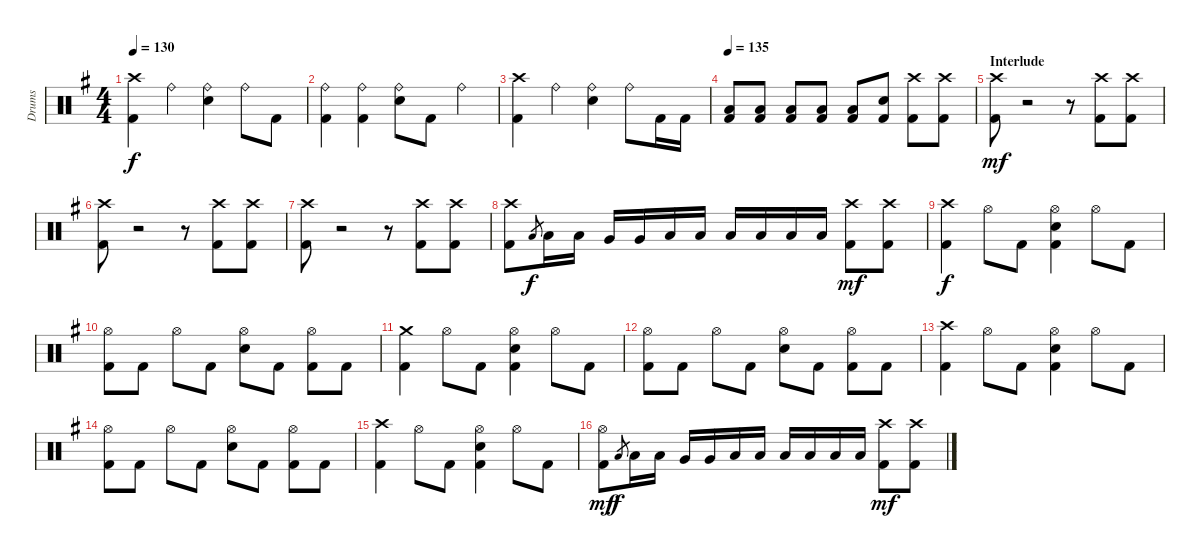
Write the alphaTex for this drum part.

\track ("Drums" "Drums") {instrument percussion}
\staff {score}
\articulation defaults
\ts (4 4)
\tempo 130
\clef neutral
\ks eminor
("Crash high (hit)" "Kick (hit) 2").4{dy f} "Ride (bell)".4 ("Ride (bell)" "Snare (hit) 2").4 "Ride (bell)".8 "Kick (hit) 2".8 |
("Ride (bell)" "Kick (hit) 2").4 ("Ride (bell)" "Kick (hit) 2").4 ("Ride (bell)" "Snare (hit) 2").8 "Kick (hit) 2".8 "Ride (bell)".4 |
("Crash high (hit)" "Kick (hit) 2").4 "Ride (bell)".4 ("Ride (bell)" "Snare (hit) 2").4 "Ride (bell)".8 "Kick (hit) 2".16 "Kick (hit) 2".16 |
\tempo 135
("Low Floor Tom (hit)" "Kick (hit) 2").8 ("Low Floor Tom (hit)" "Kick (hit) 2").8 ("Low Floor Tom (hit)" "Kick (hit) 2").8 ("Low Floor Tom (hit)" "Kick (hit) 2").8 ("Low Floor Tom (hit)" "Kick (hit) 2").8 ("Snare (hit) 2" "Kick (hit) 2").8 ("Crash high (hit)" "Kick (hit) 2").8 ("Crash high (hit)" "Kick (hit) 2").8 |
\section ("" "Interlude")
("Crash high (hit)" "Kick (hit) 2").8{dy mf} r.2 r.8 ("Crash high (hit)" "Kick (hit) 2").8 ("Crash high (hit)" "Kick (hit) 2").8 |
("Crash high (hit)" "Kick (hit) 2").8 r.2 r.8 ("Crash high (hit)" "Kick (hit) 2").8 ("Crash high (hit)" "Kick (hit) 2").8 |
("Crash high (hit)" "Kick (hit) 2").8 r.2 r.8 ("Crash high (hit)" "Kick (hit) 2").8 ("Crash high (hit)" "Kick (hit) 2").8 |
("Crash high (hit)" "Kick (hit) 2").8 "Low Tom (hit)".8{gr dy f} "Low Tom (hit)".16 "Low Tom (hit)".16 "Very Low Tom (hit)".16 "Very Low Tom (hit)".16 "Low Floor Tom (hit)".16 "Low Floor Tom (hit)".16 "Low Floor Tom (hit)".16 "Low Floor Tom (hit)".16 "Low Floor Tom (hit)".16 "Low Floor Tom (hit)".16 ("Crash high (hit)" "Kick (hit) 2").8{dy mf} ("Crash high (hit)" "Kick (hit) 2").8 |
("Crash high (hit)" "Kick (hit) 2").4{dy f} "Hi-Hat (open)".8 "Kick (hit) 2".8 ("Hi-Hat (open)" "Snare (hit) 2" "Kick (hit) 2").4 "Hi-Hat (open)".8 "Kick (hit) 2".8 |
("Hi-Hat (open)" "Kick (hit) 2").8 "Kick (hit) 2".8 "Hi-Hat (open)".8 "Kick (hit) 2".8 ("Hi-Hat (open)" "Snare (hit) 2").8 "Kick (hit) 2".8 ("Hi-Hat (open)" "Kick (hit) 2").8 "Kick (hit) 2".8 |
("Crash medium (hit)" "Kick (hit) 2").4 "Hi-Hat (open)".8 "Kick (hit) 2".8 ("Hi-Hat (open)" "Snare (hit) 2" "Kick (hit) 2").4 "Hi-Hat (open)".8 "Kick (hit) 2".8 |
("Hi-Hat (open)" "Kick (hit) 2").8 "Kick (hit) 2".8 "Hi-Hat (open)".8 "Kick (hit) 2".8 ("Hi-Hat (open)" "Snare (hit) 2").8 "Kick (hit) 2".8 ("Hi-Hat (open)" "Kick (hit) 2").8 "Kick (hit) 2".8 |
("Crash high (hit)" "Kick (hit) 2").4 "Hi-Hat (open)".8 "Kick (hit) 2".8 ("Hi-Hat (open)" "Snare (hit) 2" "Kick (hit) 2").4 "Hi-Hat (open)".8 "Kick (hit) 2".8 |
("Hi-Hat (open)" "Kick (hit) 2").8 "Kick (hit) 2".8 "Hi-Hat (open)".8 "Kick (hit) 2".8 ("Hi-Hat (open)" "Snare (hit) 2").8 "Kick (hit) 2".8 ("Hi-Hat (open)" "Kick (hit) 2").8 "Kick (hit) 2".8 |
("Crash high (hit)" "Kick (hit) 2").4 "Hi-Hat (open)".8 "Kick (hit) 2".8 ("Hi-Hat (open)" "Snare (hit) 2" "Kick (hit) 2").4 "Hi-Hat (open)".8 "Kick (hit) 2".8 |
("Hi-Hat (open)" "Kick (hit) 2").8{dy mf} "Low Tom (hit)".8{gr dy f} "Low Tom (hit)".16 "Low Tom (hit)".16 "Very Low Tom (hit)".16 "Very Low Tom (hit)".16 "Low Floor Tom (hit)".16 "Low Floor Tom (hit)".16 "Low Floor Tom (hit)".16 "Low Floor Tom (hit)".16 "Low Floor Tom (hit)".16 "Low Floor Tom (hit)".16 ("Crash high (hit)" "Kick (hit) 2").8{dy mf} ("Crash high (hit)" "Kick (hit) 2").8
